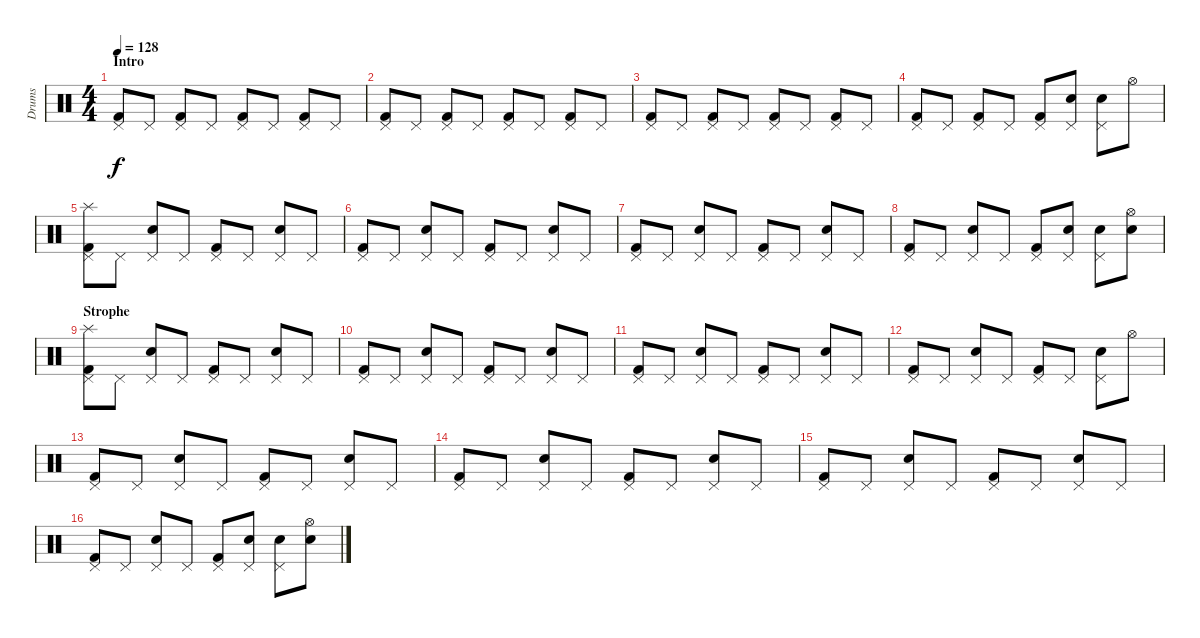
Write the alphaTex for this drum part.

\track ("Drums" "Drums") {instrument percussion}
\staff {score}
\articulation defaults
\ts (4 4)
\section ("" "Intro")
\tempo 128
\clef neutral
\ks c
("Pedal Hi-Hat (hit)" "Kick (hit) 2").8{dy f} "Pedal Hi-Hat (hit)".8 ("Pedal Hi-Hat (hit)" "Kick (hit) 2").8 "Pedal Hi-Hat (hit)".8 ("Pedal Hi-Hat (hit)" "Kick (hit) 2").8 "Pedal Hi-Hat (hit)".8 ("Pedal Hi-Hat (hit)" "Kick (hit) 2").8 "Pedal Hi-Hat (hit)".8 |
("Pedal Hi-Hat (hit)" "Kick (hit) 2").8 "Pedal Hi-Hat (hit)".8 ("Pedal Hi-Hat (hit)" "Kick (hit) 2").8 "Pedal Hi-Hat (hit)".8 ("Pedal Hi-Hat (hit)" "Kick (hit) 2").8 "Pedal Hi-Hat (hit)".8 ("Pedal Hi-Hat (hit)" "Kick (hit) 2").8 "Pedal Hi-Hat (hit)".8 |
("Pedal Hi-Hat (hit)" "Kick (hit) 2").8 "Pedal Hi-Hat (hit)".8 ("Pedal Hi-Hat (hit)" "Kick (hit) 2").8 "Pedal Hi-Hat (hit)".8 ("Pedal Hi-Hat (hit)" "Kick (hit) 2").8 "Pedal Hi-Hat (hit)".8 ("Pedal Hi-Hat (hit)" "Kick (hit) 2").8 "Pedal Hi-Hat (hit)".8 |
("Pedal Hi-Hat (hit)" "Kick (hit) 2").8 "Pedal Hi-Hat (hit)".8 ("Pedal Hi-Hat (hit)" "Kick (hit) 2").8 "Pedal Hi-Hat (hit)".8 ("Pedal Hi-Hat (hit)" "Kick (hit) 2").8 ("Pedal Hi-Hat (hit)" "Snare (hit) 2").8 ("Pedal Hi-Hat (hit)" "Snare (hit) 2").8 "Hi-Hat (open)".8 |
("Pedal Hi-Hat (hit)" "Splash (hit)" "Kick (hit) 2").8 "Pedal Hi-Hat (hit)".8 ("Pedal Hi-Hat (hit)" "Snare (hit) 2").8 "Pedal Hi-Hat (hit)".8 ("Pedal Hi-Hat (hit)" "Kick (hit) 2").8 "Pedal Hi-Hat (hit)".8 ("Pedal Hi-Hat (hit)" "Snare (hit) 2").8 "Pedal Hi-Hat (hit)".8 |
("Pedal Hi-Hat (hit)" "Kick (hit) 2").8 "Pedal Hi-Hat (hit)".8 ("Pedal Hi-Hat (hit)" "Snare (hit) 2").8 "Pedal Hi-Hat (hit)".8 ("Pedal Hi-Hat (hit)" "Kick (hit) 2").8 "Pedal Hi-Hat (hit)".8 ("Pedal Hi-Hat (hit)" "Snare (hit) 2").8 "Pedal Hi-Hat (hit)".8 |
("Pedal Hi-Hat (hit)" "Kick (hit) 2").8 "Pedal Hi-Hat (hit)".8 ("Pedal Hi-Hat (hit)" "Snare (hit) 2").8 "Pedal Hi-Hat (hit)".8 ("Pedal Hi-Hat (hit)" "Kick (hit) 2").8 "Pedal Hi-Hat (hit)".8 ("Pedal Hi-Hat (hit)" "Snare (hit) 2").8 "Pedal Hi-Hat (hit)".8 |
("Pedal Hi-Hat (hit)" "Kick (hit) 2").8 "Pedal Hi-Hat (hit)".8 ("Pedal Hi-Hat (hit)" "Snare (hit) 2").8 "Pedal Hi-Hat (hit)".8 ("Pedal Hi-Hat (hit)" "Kick (hit) 2").8 ("Pedal Hi-Hat (hit)" "Snare (hit) 2").8 ("Pedal Hi-Hat (hit)" "Snare (hit) 2").8 ("Hi-Hat (open)" "Snare (hit) 2").8 |
\section ("" "Strophe")
("Pedal Hi-Hat (hit)" "Splash (hit)" "Kick (hit) 2").8 "Pedal Hi-Hat (hit)".8 ("Pedal Hi-Hat (hit)" "Snare (hit) 2").8 "Pedal Hi-Hat (hit)".8 ("Pedal Hi-Hat (hit)" "Kick (hit) 2").8 "Pedal Hi-Hat (hit)".8 ("Pedal Hi-Hat (hit)" "Snare (hit) 2").8 "Pedal Hi-Hat (hit)".8 |
("Pedal Hi-Hat (hit)" "Kick (hit) 2").8 "Pedal Hi-Hat (hit)".8 ("Pedal Hi-Hat (hit)" "Snare (hit) 2").8 "Pedal Hi-Hat (hit)".8 ("Pedal Hi-Hat (hit)" "Kick (hit) 2").8 "Pedal Hi-Hat (hit)".8 ("Pedal Hi-Hat (hit)" "Snare (hit) 2").8 "Pedal Hi-Hat (hit)".8 |
("Pedal Hi-Hat (hit)" "Kick (hit) 2").8 "Pedal Hi-Hat (hit)".8 ("Pedal Hi-Hat (hit)" "Snare (hit) 2").8 "Pedal Hi-Hat (hit)".8 ("Pedal Hi-Hat (hit)" "Kick (hit) 2").8 "Pedal Hi-Hat (hit)".8 ("Pedal Hi-Hat (hit)" "Snare (hit) 2").8 "Pedal Hi-Hat (hit)".8 |
("Pedal Hi-Hat (hit)" "Kick (hit) 2").8 "Pedal Hi-Hat (hit)".8 ("Pedal Hi-Hat (hit)" "Snare (hit) 2").8 "Pedal Hi-Hat (hit)".8 ("Pedal Hi-Hat (hit)" "Kick (hit) 2").8 "Pedal Hi-Hat (hit)".8 ("Pedal Hi-Hat (hit)" "Snare (hit) 2").8 "Hi-Hat (open)".8 |
("Pedal Hi-Hat (hit)" "Kick (hit) 2").8 "Pedal Hi-Hat (hit)".8 ("Pedal Hi-Hat (hit)" "Snare (hit) 2").8 "Pedal Hi-Hat (hit)".8 ("Pedal Hi-Hat (hit)" "Kick (hit) 2").8 "Pedal Hi-Hat (hit)".8 ("Pedal Hi-Hat (hit)" "Snare (hit) 2").8 "Pedal Hi-Hat (hit)".8 |
("Pedal Hi-Hat (hit)" "Kick (hit) 2").8 "Pedal Hi-Hat (hit)".8 ("Pedal Hi-Hat (hit)" "Snare (hit) 2").8 "Pedal Hi-Hat (hit)".8 ("Pedal Hi-Hat (hit)" "Kick (hit) 2").8 "Pedal Hi-Hat (hit)".8 ("Pedal Hi-Hat (hit)" "Snare (hit) 2").8 "Pedal Hi-Hat (hit)".8 |
("Pedal Hi-Hat (hit)" "Kick (hit) 2").8 "Pedal Hi-Hat (hit)".8 ("Pedal Hi-Hat (hit)" "Snare (hit) 2").8 "Pedal Hi-Hat (hit)".8 ("Pedal Hi-Hat (hit)" "Kick (hit) 2").8 "Pedal Hi-Hat (hit)".8 ("Pedal Hi-Hat (hit)" "Snare (hit) 2").8 "Pedal Hi-Hat (hit)".8 |
("Pedal Hi-Hat (hit)" "Kick (hit) 2").8 "Pedal Hi-Hat (hit)".8 ("Pedal Hi-Hat (hit)" "Snare (hit) 2").8 "Pedal Hi-Hat (hit)".8 ("Pedal Hi-Hat (hit)" "Kick (hit) 2").8 ("Pedal Hi-Hat (hit)" "Snare (hit) 2").8 ("Pedal Hi-Hat (hit)" "Snare (hit) 2").8 ("Hi-Hat (open)" "Snare (hit) 2").8
